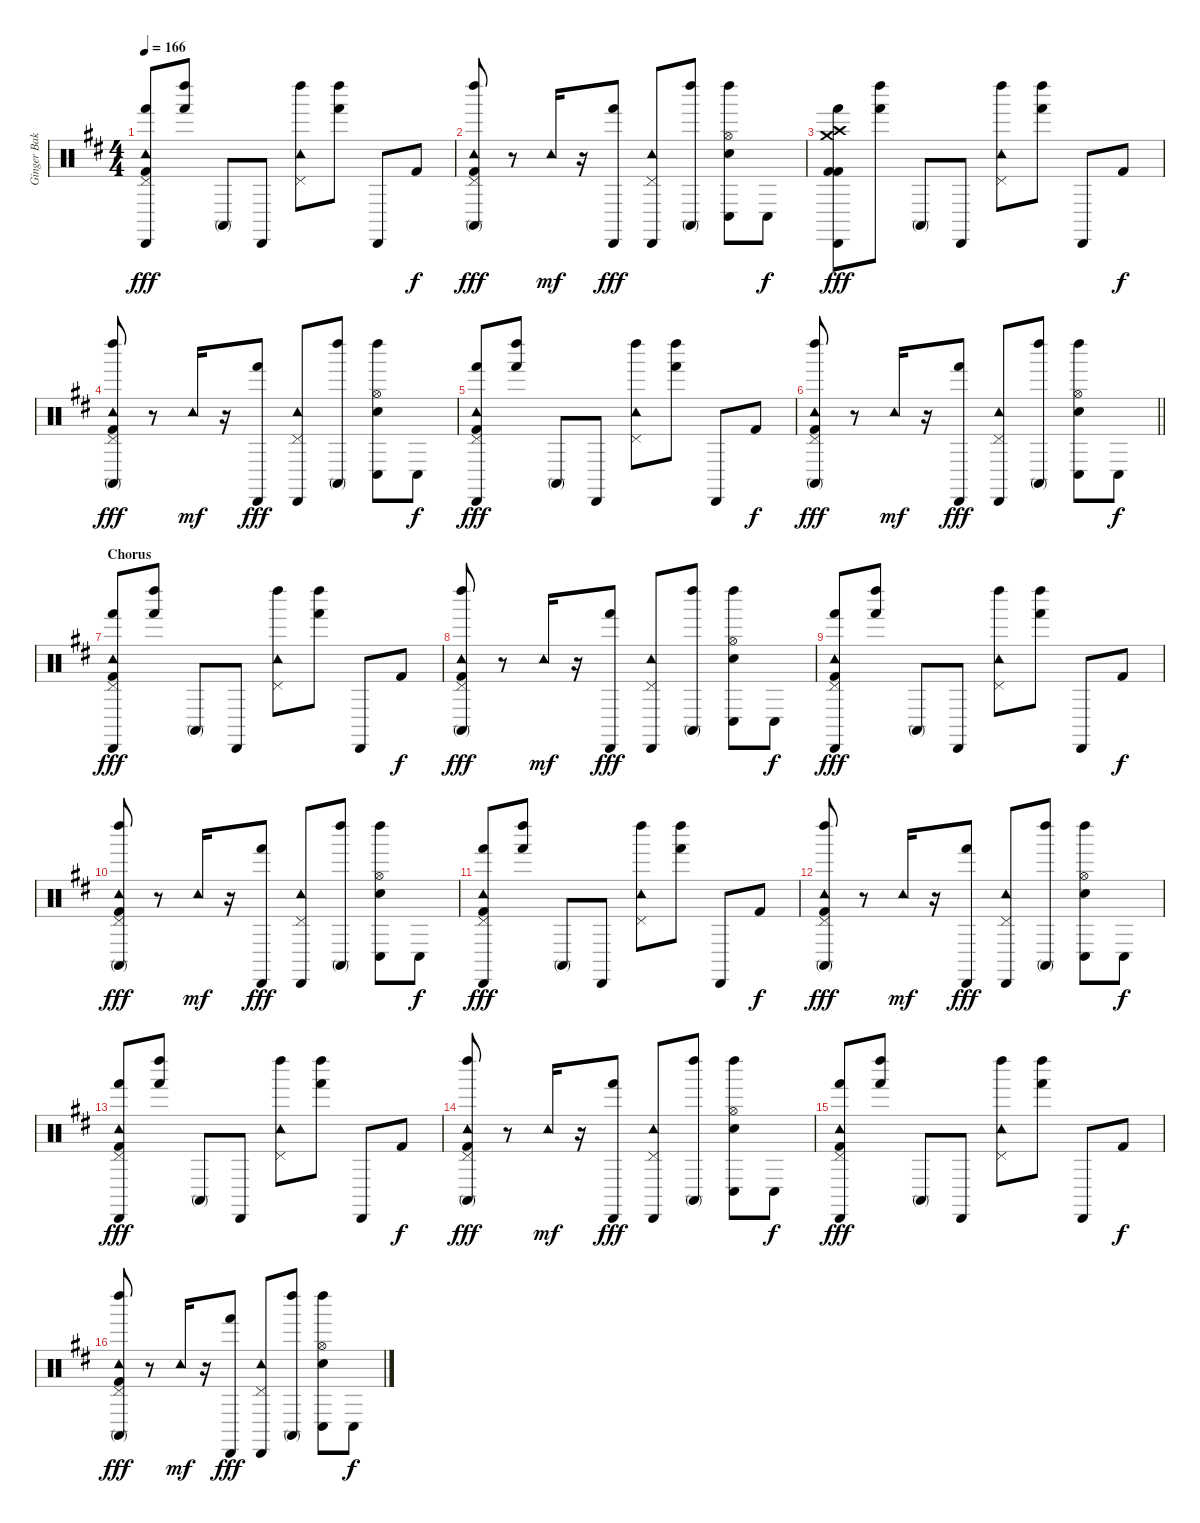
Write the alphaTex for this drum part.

\track ("Ginger Baker (Drums)" "Ginger Bak") {instrument percussion}
\staff {score}
\articulation defaults
\ts (4 4)
\tempo 166
\clef neutral
\ks d
("Tambourine (hit)" "Pedal Hi-Hat (hit)" "Kick (hit) 2" "Hand (hit)" "Cabasa (hit)").8{dy fff} ("Hand (hit)" "Left Maraca (hit)").8 "Conga high (mute)".8 "Cabasa (hit)".8 ("Tambourine (hit)" "Pedal Hi-Hat (hit)" "Left Maraca (hit)").8 ("Left Maraca (hit)" "Hand (hit)").8 "Cabasa (hit)".8 "Kick (hit) 2".8{dy f} |
("Tambourine (hit)" "Pedal Hi-Hat (hit)" "Left Maraca (hit)" "Conga high (mute)" "Kick (hit) 2").8{dy fff} r.8 "Tambourine (hit)".16{dy mf} r.16 ("Cabasa (hit)" "Hand (hit)").8{dy fff} ("Tambourine (hit)" "Pedal Hi-Hat (hit)" "Cabasa (hit)").8 ("Left Maraca (hit)" "Conga high (mute)").8 ("Hi-Hat (open)" "Snare (hit) 2" "Left Maraca (hit)" "Conga low (hit)").8 "Conga low (hit)".8{dy f} |
("Crash high (hit)" "Crash medium (hit)" "Kick (hit) 2" "Hand (hit)" "Cabasa (hit)" "Kick (hit) 2").8{dy fff} ("Hand (hit)" "Left Maraca (hit)").8 "Conga high (mute)".8 "Cabasa (hit)".8 ("Tambourine (hit)" "Pedal Hi-Hat (hit)" "Left Maraca (hit)").8 ("Left Maraca (hit)" "Hand (hit)").8 "Cabasa (hit)".8 "Kick (hit) 2".8{dy f} |
("Tambourine (hit)" "Pedal Hi-Hat (hit)" "Left Maraca (hit)" "Conga high (mute)" "Kick (hit) 2").8{dy fff} r.8 "Tambourine (hit)".16{dy mf} r.16 ("Cabasa (hit)" "Hand (hit)").8{dy fff} ("Tambourine (hit)" "Pedal Hi-Hat (hit)" "Cabasa (hit)").8 ("Left Maraca (hit)" "Conga high (mute)").8 ("Hi-Hat (open)" "Snare (hit) 2" "Left Maraca (hit)" "Conga low (hit)").8 "Conga low (hit)".8{dy f} |
("Tambourine (hit)" "Pedal Hi-Hat (hit)" "Kick (hit) 2" "Hand (hit)" "Cabasa (hit)").8{dy fff} ("Hand (hit)" "Left Maraca (hit)").8 "Conga high (mute)".8 "Cabasa (hit)".8 ("Tambourine (hit)" "Pedal Hi-Hat (hit)" "Left Maraca (hit)").8 ("Left Maraca (hit)" "Hand (hit)").8 "Cabasa (hit)".8 "Kick (hit) 2".8{dy f} |
\barLineRight lightlight
("Tambourine (hit)" "Pedal Hi-Hat (hit)" "Left Maraca (hit)" "Conga high (mute)" "Kick (hit) 2").8{dy fff} r.8 "Tambourine (hit)".16{dy mf} r.16 ("Cabasa (hit)" "Hand (hit)").8{dy fff} ("Tambourine (hit)" "Pedal Hi-Hat (hit)" "Cabasa (hit)").8 ("Left Maraca (hit)" "Conga high (mute)").8 ("Hi-Hat (open)" "Snare (hit) 2" "Left Maraca (hit)" "Conga low (hit)").8 "Conga low (hit)".8{dy f} |
\section ("" "Chorus")
("Tambourine (hit)" "Pedal Hi-Hat (hit)" "Kick (hit) 2" "Hand (hit)" "Cabasa (hit)").8{dy fff} ("Hand (hit)" "Left Maraca (hit)").8 "Conga high (mute)".8 "Cabasa (hit)".8 ("Tambourine (hit)" "Pedal Hi-Hat (hit)" "Left Maraca (hit)").8 ("Left Maraca (hit)" "Hand (hit)").8 "Cabasa (hit)".8 "Kick (hit) 2".8{dy f} |
("Tambourine (hit)" "Pedal Hi-Hat (hit)" "Left Maraca (hit)" "Conga high (mute)" "Kick (hit) 2").8{dy fff} r.8 "Tambourine (hit)".16{dy mf} r.16 ("Cabasa (hit)" "Hand (hit)").8{dy fff} ("Tambourine (hit)" "Pedal Hi-Hat (hit)" "Cabasa (hit)").8 ("Left Maraca (hit)" "Conga high (mute)").8 ("Hi-Hat (open)" "Snare (hit) 2" "Left Maraca (hit)" "Conga low (hit)").8 "Conga low (hit)".8{dy f} |
("Tambourine (hit)" "Pedal Hi-Hat (hit)" "Kick (hit) 2" "Hand (hit)" "Cabasa (hit)").8{dy fff} ("Hand (hit)" "Left Maraca (hit)").8 "Conga high (mute)".8 "Cabasa (hit)".8 ("Tambourine (hit)" "Pedal Hi-Hat (hit)" "Left Maraca (hit)").8 ("Left Maraca (hit)" "Hand (hit)").8 "Cabasa (hit)".8 "Kick (hit) 2".8{dy f} |
("Tambourine (hit)" "Pedal Hi-Hat (hit)" "Left Maraca (hit)" "Conga high (mute)" "Kick (hit) 2").8{dy fff} r.8 "Tambourine (hit)".16{dy mf} r.16 ("Cabasa (hit)" "Hand (hit)").8{dy fff} ("Tambourine (hit)" "Pedal Hi-Hat (hit)" "Cabasa (hit)").8 ("Left Maraca (hit)" "Conga high (mute)").8 ("Hi-Hat (open)" "Snare (hit) 2" "Left Maraca (hit)" "Conga low (hit)").8 "Conga low (hit)".8{dy f} |
("Tambourine (hit)" "Pedal Hi-Hat (hit)" "Kick (hit) 2" "Hand (hit)" "Cabasa (hit)").8{dy fff} ("Hand (hit)" "Left Maraca (hit)").8 "Conga high (mute)".8 "Cabasa (hit)".8 ("Tambourine (hit)" "Pedal Hi-Hat (hit)" "Left Maraca (hit)").8 ("Left Maraca (hit)" "Hand (hit)").8 "Cabasa (hit)".8 "Kick (hit) 2".8{dy f} |
("Tambourine (hit)" "Pedal Hi-Hat (hit)" "Left Maraca (hit)" "Conga high (mute)" "Kick (hit) 2").8{dy fff} r.8 "Tambourine (hit)".16{dy mf} r.16 ("Cabasa (hit)" "Hand (hit)").8{dy fff} ("Tambourine (hit)" "Pedal Hi-Hat (hit)" "Cabasa (hit)").8 ("Left Maraca (hit)" "Conga high (mute)").8 ("Hi-Hat (open)" "Snare (hit) 2" "Left Maraca (hit)" "Conga low (hit)").8 "Conga low (hit)".8{dy f} |
("Tambourine (hit)" "Pedal Hi-Hat (hit)" "Kick (hit) 2" "Hand (hit)" "Cabasa (hit)").8{dy fff} ("Hand (hit)" "Left Maraca (hit)").8 "Conga high (mute)".8 "Cabasa (hit)".8 ("Tambourine (hit)" "Pedal Hi-Hat (hit)" "Left Maraca (hit)").8 ("Left Maraca (hit)" "Hand (hit)").8 "Cabasa (hit)".8 "Kick (hit) 2".8{dy f} |
("Tambourine (hit)" "Pedal Hi-Hat (hit)" "Left Maraca (hit)" "Conga high (mute)" "Kick (hit) 2").8{dy fff} r.8 "Tambourine (hit)".16{dy mf} r.16 ("Cabasa (hit)" "Hand (hit)").8{dy fff} ("Tambourine (hit)" "Pedal Hi-Hat (hit)" "Cabasa (hit)").8 ("Left Maraca (hit)" "Conga high (mute)").8 ("Hi-Hat (open)" "Snare (hit) 2" "Left Maraca (hit)" "Conga low (hit)").8 "Conga low (hit)".8{dy f} |
("Tambourine (hit)" "Pedal Hi-Hat (hit)" "Kick (hit) 2" "Hand (hit)" "Cabasa (hit)").8{dy fff} ("Hand (hit)" "Left Maraca (hit)").8 "Conga high (mute)".8 "Cabasa (hit)".8 ("Tambourine (hit)" "Pedal Hi-Hat (hit)" "Left Maraca (hit)").8 ("Left Maraca (hit)" "Hand (hit)").8 "Cabasa (hit)".8 "Kick (hit) 2".8{dy f} |
("Tambourine (hit)" "Pedal Hi-Hat (hit)" "Left Maraca (hit)" "Conga high (mute)" "Kick (hit) 2").8{dy fff} r.8 "Tambourine (hit)".16{dy mf} r.16 ("Cabasa (hit)" "Hand (hit)").8{dy fff} ("Tambourine (hit)" "Pedal Hi-Hat (hit)" "Cabasa (hit)").8 ("Left Maraca (hit)" "Conga high (mute)").8 ("Hi-Hat (open)" "Snare (hit) 2" "Left Maraca (hit)" "Conga low (hit)").8 "Conga low (hit)".8{dy f}
